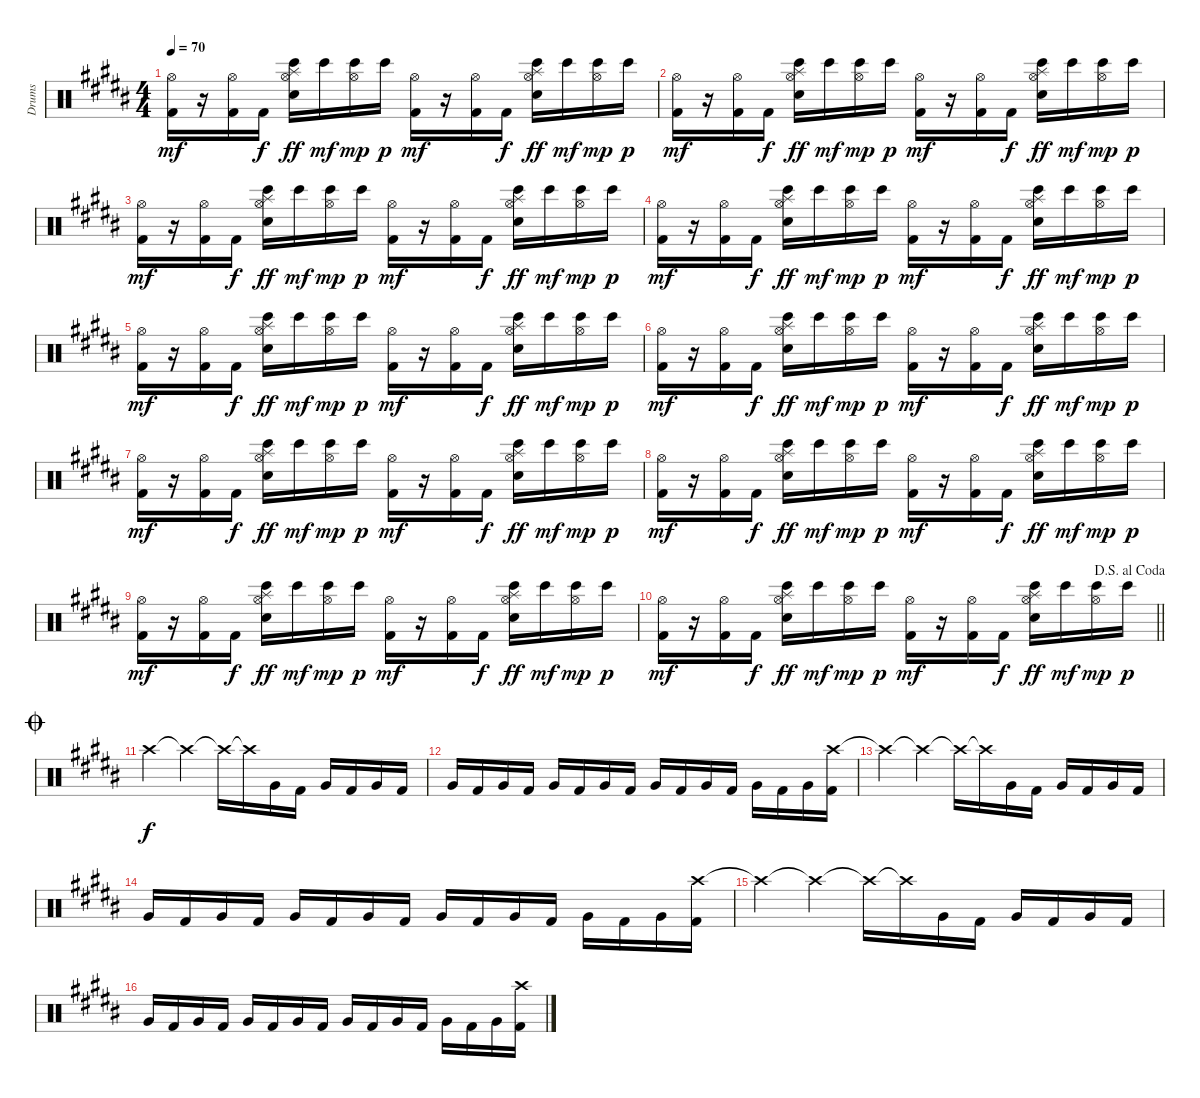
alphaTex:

\track ("Drums" "Drums") {instrument percussion}
\staff {score}
\articulation defaults
\ts (4 4)
\tempo 70
\clef neutral
\ks b
("Hi-Hat (open)" "Kick (hit) 2").16{dy mf} r.16 ("Hi-Hat (open)" "Kick (hit) 2").16 "Kick (hit) 2".16{dy f} ("Hi-Hat (open)" "Splash (hit)" "Snare (hit) 2" "Bongo High (hit)").16{dy ff} "Bongo High (hit)".16{dy mf} ("Hi-Hat (open)" "Bongo High (hit)").16{dy mp} "Bongo High (hit)".16{dy p} ("Hi-Hat (open)" "Kick (hit) 2").16{dy mf} r.16 ("Hi-Hat (open)" "Kick (hit) 2").16 "Kick (hit) 2".16{dy f} ("Hi-Hat (open)" "Splash (hit)" "Snare (hit) 2" "Bongo High (hit)").16{dy ff} "Bongo High (hit)".16{dy mf} ("Hi-Hat (open)" "Bongo High (hit)").16{dy mp} "Bongo High (hit)".16{dy p} |
("Hi-Hat (open)" "Kick (hit) 2").16{dy mf} r.16 ("Hi-Hat (open)" "Kick (hit) 2").16 "Kick (hit) 2".16{dy f} ("Hi-Hat (open)" "Splash (hit)" "Snare (hit) 2" "Bongo High (hit)").16{dy ff} "Bongo High (hit)".16{dy mf} ("Hi-Hat (open)" "Bongo High (hit)").16{dy mp} "Bongo High (hit)".16{dy p} ("Hi-Hat (open)" "Kick (hit) 2").16{dy mf} r.16 ("Hi-Hat (open)" "Kick (hit) 2").16 "Kick (hit) 2".16{dy f} ("Hi-Hat (open)" "Splash (hit)" "Snare (hit) 2" "Bongo High (hit)").16{dy ff} "Bongo High (hit)".16{dy mf} ("Hi-Hat (open)" "Bongo High (hit)").16{dy mp} "Bongo High (hit)".16{dy p} |
("Hi-Hat (open)" "Kick (hit) 2").16{dy mf} r.16 ("Hi-Hat (open)" "Kick (hit) 2").16 "Kick (hit) 2".16{dy f} ("Hi-Hat (open)" "Splash (hit)" "Snare (hit) 2" "Bongo High (hit)").16{dy ff} "Bongo High (hit)".16{dy mf} ("Hi-Hat (open)" "Bongo High (hit)").16{dy mp} "Bongo High (hit)".16{dy p} ("Hi-Hat (open)" "Kick (hit) 2").16{dy mf} r.16 ("Hi-Hat (open)" "Kick (hit) 2").16 "Kick (hit) 2".16{dy f} ("Hi-Hat (open)" "Splash (hit)" "Snare (hit) 2" "Bongo High (hit)").16{dy ff} "Bongo High (hit)".16{dy mf} ("Hi-Hat (open)" "Bongo High (hit)").16{dy mp} "Bongo High (hit)".16{dy p} |
("Hi-Hat (open)" "Kick (hit) 2").16{dy mf} r.16 ("Hi-Hat (open)" "Kick (hit) 2").16 "Kick (hit) 2".16{dy f} ("Hi-Hat (open)" "Splash (hit)" "Snare (hit) 2" "Bongo High (hit)").16{dy ff} "Bongo High (hit)".16{dy mf} ("Hi-Hat (open)" "Bongo High (hit)").16{dy mp} "Bongo High (hit)".16{dy p} ("Hi-Hat (open)" "Kick (hit) 2").16{dy mf} r.16 ("Hi-Hat (open)" "Kick (hit) 2").16 "Kick (hit) 2".16{dy f} ("Hi-Hat (open)" "Splash (hit)" "Snare (hit) 2" "Bongo High (hit)").16{dy ff} "Bongo High (hit)".16{dy mf} ("Hi-Hat (open)" "Bongo High (hit)").16{dy mp} "Bongo High (hit)".16{dy p} |
("Hi-Hat (open)" "Kick (hit) 2").16{dy mf} r.16 ("Hi-Hat (open)" "Kick (hit) 2").16 "Kick (hit) 2".16{dy f} ("Hi-Hat (open)" "Splash (hit)" "Snare (hit) 2" "Bongo High (hit)").16{dy ff} "Bongo High (hit)".16{dy mf} ("Hi-Hat (open)" "Bongo High (hit)").16{dy mp} "Bongo High (hit)".16{dy p} ("Hi-Hat (open)" "Kick (hit) 2").16{dy mf} r.16 ("Hi-Hat (open)" "Kick (hit) 2").16 "Kick (hit) 2".16{dy f} ("Hi-Hat (open)" "Splash (hit)" "Snare (hit) 2" "Bongo High (hit)").16{dy ff} "Bongo High (hit)".16{dy mf} ("Hi-Hat (open)" "Bongo High (hit)").16{dy mp} "Bongo High (hit)".16{dy p} |
("Hi-Hat (open)" "Kick (hit) 2").16{dy mf} r.16 ("Hi-Hat (open)" "Kick (hit) 2").16 "Kick (hit) 2".16{dy f} ("Hi-Hat (open)" "Splash (hit)" "Snare (hit) 2" "Bongo High (hit)").16{dy ff} "Bongo High (hit)".16{dy mf} ("Hi-Hat (open)" "Bongo High (hit)").16{dy mp} "Bongo High (hit)".16{dy p} ("Hi-Hat (open)" "Kick (hit) 2").16{dy mf} r.16 ("Hi-Hat (open)" "Kick (hit) 2").16 "Kick (hit) 2".16{dy f} ("Hi-Hat (open)" "Splash (hit)" "Snare (hit) 2" "Bongo High (hit)").16{dy ff} "Bongo High (hit)".16{dy mf} ("Hi-Hat (open)" "Bongo High (hit)").16{dy mp} "Bongo High (hit)".16{dy p} |
("Hi-Hat (open)" "Kick (hit) 2").16{dy mf} r.16 ("Hi-Hat (open)" "Kick (hit) 2").16 "Kick (hit) 2".16{dy f} ("Hi-Hat (open)" "Splash (hit)" "Snare (hit) 2" "Bongo High (hit)").16{dy ff} "Bongo High (hit)".16{dy mf} ("Hi-Hat (open)" "Bongo High (hit)").16{dy mp} "Bongo High (hit)".16{dy p} ("Hi-Hat (open)" "Kick (hit) 2").16{dy mf} r.16 ("Hi-Hat (open)" "Kick (hit) 2").16 "Kick (hit) 2".16{dy f} ("Hi-Hat (open)" "Splash (hit)" "Snare (hit) 2" "Bongo High (hit)").16{dy ff} "Bongo High (hit)".16{dy mf} ("Hi-Hat (open)" "Bongo High (hit)").16{dy mp} "Bongo High (hit)".16{dy p} |
("Hi-Hat (open)" "Kick (hit) 2").16{dy mf} r.16 ("Hi-Hat (open)" "Kick (hit) 2").16 "Kick (hit) 2".16{dy f} ("Hi-Hat (open)" "Splash (hit)" "Snare (hit) 2" "Bongo High (hit)").16{dy ff} "Bongo High (hit)".16{dy mf} ("Hi-Hat (open)" "Bongo High (hit)").16{dy mp} "Bongo High (hit)".16{dy p} ("Hi-Hat (open)" "Kick (hit) 2").16{dy mf} r.16 ("Hi-Hat (open)" "Kick (hit) 2").16 "Kick (hit) 2".16{dy f} ("Hi-Hat (open)" "Splash (hit)" "Snare (hit) 2" "Bongo High (hit)").16{dy ff} "Bongo High (hit)".16{dy mf} ("Hi-Hat (open)" "Bongo High (hit)").16{dy mp} "Bongo High (hit)".16{dy p} |
("Hi-Hat (open)" "Kick (hit) 2").16{dy mf} r.16 ("Hi-Hat (open)" "Kick (hit) 2").16 "Kick (hit) 2".16{dy f} ("Hi-Hat (open)" "Splash (hit)" "Snare (hit) 2" "Bongo High (hit)").16{dy ff} "Bongo High (hit)".16{dy mf} ("Hi-Hat (open)" "Bongo High (hit)").16{dy mp} "Bongo High (hit)".16{dy p} ("Hi-Hat (open)" "Kick (hit) 2").16{dy mf} r.16 ("Hi-Hat (open)" "Kick (hit) 2").16 "Kick (hit) 2".16{dy f} ("Hi-Hat (open)" "Splash (hit)" "Snare (hit) 2" "Bongo High (hit)").16{dy ff} "Bongo High (hit)".16{dy mf} ("Hi-Hat (open)" "Bongo High (hit)").16{dy mp} "Bongo High (hit)".16{dy p} |
\jump dalsegnoalcoda
\barLineRight lightlight
("Hi-Hat (open)" "Kick (hit) 2").16{dy mf} r.16 ("Hi-Hat (open)" "Kick (hit) 2").16 "Kick (hit) 2".16{dy f} ("Hi-Hat (open)" "Splash (hit)" "Snare (hit) 2" "Bongo High (hit)").16{dy ff} "Bongo High (hit)".16{dy mf} ("Hi-Hat (open)" "Bongo High (hit)").16{dy mp} "Bongo High (hit)".16{dy p} ("Hi-Hat (open)" "Kick (hit) 2").16{dy mf} r.16 ("Hi-Hat (open)" "Kick (hit) 2").16 "Kick (hit) 2".16{dy f} ("Hi-Hat (open)" "Splash (hit)" "Snare (hit) 2" "Bongo High (hit)").16{dy ff} "Bongo High (hit)".16{dy mf} ("Hi-Hat (open)" "Bongo High (hit)").16{dy mp} "Bongo High (hit)".16{dy p} |
\jump coda "Crash high (hit)".4{dy f} "Crash high (hit)"{t}.4 "Crash high (hit)"{t}.16 "Crash high (hit)"{t}.16 "Very Low Tom (hit)".16 "Kick (hit) 2".16 "Very Low Tom (hit)".16 "Kick (hit) 2".16 "Very Low Tom (hit)".16 "Kick (hit) 2".16
|
"Very Low Tom (hit)".16 "Kick (hit) 2".16 "Very Low Tom (hit)".16 "Kick (hit) 2".16 "Very Low Tom (hit)".16 "Kick (hit) 2".16 "Very Low Tom (hit)".16 "Kick (hit) 2".16 "Very Low Tom (hit)".16 "Kick (hit) 2".16 "Very Low Tom (hit)".16 "Kick (hit) 2".16 "Very Low Tom (hit)".16 "Kick (hit) 2".16 "Very Low Tom (hit)".16 ("Crash high (hit)" "Kick (hit) 2").16 |
"Crash high (hit)"{t}.4 "Crash high (hit)"{t}.4 "Crash high (hit)"{t}.16 "Crash high (hit)"{t}.16 "Very Low Tom (hit)".16 "Kick (hit) 2".16 "Very Low Tom (hit)".16 "Kick (hit) 2".16 "Very Low Tom (hit)".16 "Kick (hit) 2".16 |
"Very Low Tom (hit)".16 "Kick (hit) 2".16 "Very Low Tom (hit)".16 "Kick (hit) 2".16 "Very Low Tom (hit)".16 "Kick (hit) 2".16 "Very Low Tom (hit)".16 "Kick (hit) 2".16 "Very Low Tom (hit)".16 "Kick (hit) 2".16 "Very Low Tom (hit)".16 "Kick (hit) 2".16 "Very Low Tom (hit)".16 "Kick (hit) 2".16 "Very Low Tom (hit)".16 ("Crash high (hit)" "Kick (hit) 2").16 |
"Crash high (hit)"{t}.4 "Crash high (hit)"{t}.4 "Crash high (hit)"{t}.16 "Crash high (hit)"{t}.16 "Very Low Tom (hit)".16 "Kick (hit) 2".16 "Very Low Tom (hit)".16 "Kick (hit) 2".16 "Very Low Tom (hit)".16 "Kick (hit) 2".16 |
"Very Low Tom (hit)".16 "Kick (hit) 2".16 "Very Low Tom (hit)".16 "Kick (hit) 2".16 "Very Low Tom (hit)".16 "Kick (hit) 2".16 "Very Low Tom (hit)".16 "Kick (hit) 2".16 "Very Low Tom (hit)".16 "Kick (hit) 2".16 "Very Low Tom (hit)".16 "Kick (hit) 2".16 "Very Low Tom (hit)".16 "Kick (hit) 2".16 "Very Low Tom (hit)".16 ("Crash high (hit)" "Kick (hit) 2").16
